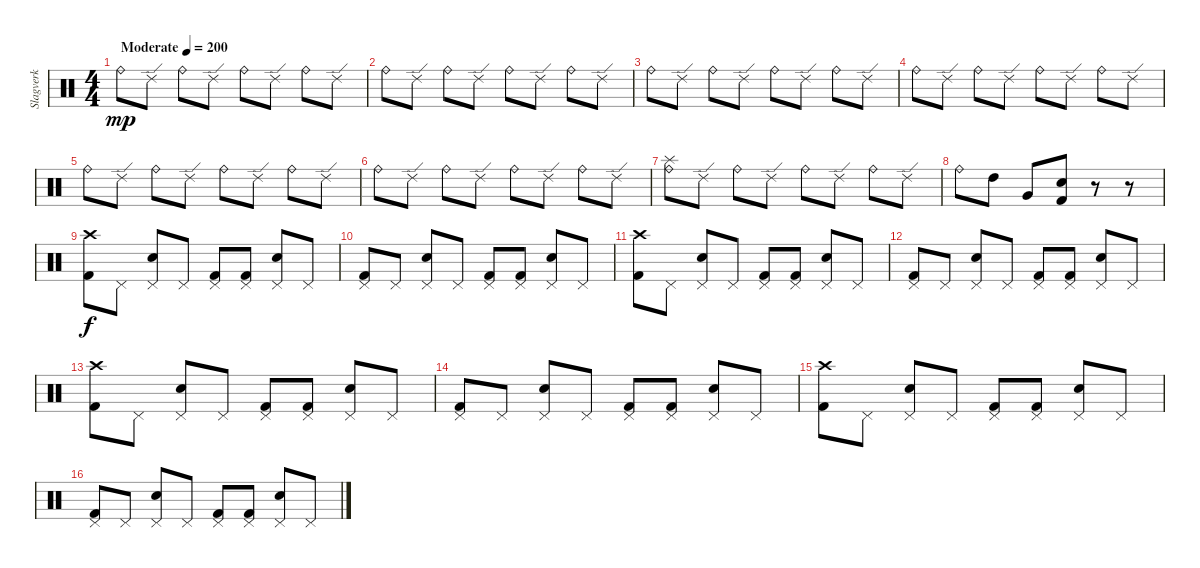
\track ("Slagverk" "Slagverk") {instrument percussion}
\staff {score}
\articulation defaults
\ts (4 4)
\tempo (200 "Moderate")
\clef neutral
\ks c "Ride (bell)".8{dy mp} "Ride (edge) 2".8 "Ride (bell)".8 "Ride (edge) 2".8 "Ride (bell)".8 "Ride (edge) 2".8 "Ride (bell)".8 "Ride (edge) 2".8
|
"Ride (bell)".8 "Ride (edge) 2".8 "Ride (bell)".8 "Ride (edge) 2".8 "Ride (bell)".8 "Ride (edge) 2".8 "Ride (bell)".8 "Ride (edge) 2".8 |
"Ride (bell)".8 "Ride (edge) 2".8 "Ride (bell)".8 "Ride (edge) 2".8 "Ride (bell)".8 "Ride (edge) 2".8 "Ride (bell)".8 "Ride (edge) 2".8 |
"Ride (bell)".8 "Ride (edge) 2".8 "Ride (bell)".8 "Ride (edge) 2".8 "Ride (bell)".8 "Ride (edge) 2".8 "Ride (bell)".8 "Ride (edge) 2".8 |
"Ride (bell)".8 "Ride (edge) 2".8 "Ride (bell)".8 "Ride (edge) 2".8 "Ride (bell)".8 "Ride (edge) 2".8 "Ride (bell)".8 "Ride (edge) 2".8 |
"Ride (bell)".8 "Ride (edge) 2".8 "Ride (bell)".8 "Ride (edge) 2".8 "Ride (bell)".8 "Ride (edge) 2".8 "Ride (bell)".8 "Ride (edge) 2".8 |
("Splash (hit)" "Ride (bell)").8 "Ride (edge) 2".8 "Ride (bell)".8 "Ride (edge) 2".8 "Ride (bell)".8 "Ride (edge) 2".8 "Ride (bell)".8 "Ride (edge) 2".8 |
"Ride (bell)".8 "High Tom (hit)".8 "Very Low Tom (hit)".8 ("Electric Snare (hit)" "Kick (hit) 2").8 r.8 r.8 |
("Crash high (hit)" "Kick (hit) 2").8{dy f} "Pedal Hi-Hat (hit)".8 ("Pedal Hi-Hat (hit)" "Electric Snare (hit)").8 "Pedal Hi-Hat (hit)".8 ("Pedal Hi-Hat (hit)" "Kick (hit) 2").8 ("Pedal Hi-Hat (hit)" "Kick (hit) 2").8 ("Pedal Hi-Hat (hit)" "Electric Snare (hit)").8 "Pedal Hi-Hat (hit)".8 |
("Pedal Hi-Hat (hit)" "Kick (hit) 2").8 "Pedal Hi-Hat (hit)".8 ("Pedal Hi-Hat (hit)" "Electric Snare (hit)").8 "Pedal Hi-Hat (hit)".8 ("Pedal Hi-Hat (hit)" "Kick (hit) 2").8 ("Pedal Hi-Hat (hit)" "Kick (hit) 2").8 ("Pedal Hi-Hat (hit)" "Electric Snare (hit)").8 "Pedal Hi-Hat (hit)".8 |
("Crash high (hit)" "Kick (hit) 2").8 "Pedal Hi-Hat (hit)".8 ("Pedal Hi-Hat (hit)" "Electric Snare (hit)").8 "Pedal Hi-Hat (hit)".8 ("Pedal Hi-Hat (hit)" "Kick (hit) 2").8 ("Pedal Hi-Hat (hit)" "Kick (hit) 2").8 ("Pedal Hi-Hat (hit)" "Electric Snare (hit)").8 "Pedal Hi-Hat (hit)".8 |
("Pedal Hi-Hat (hit)" "Kick (hit) 2").8 "Pedal Hi-Hat (hit)".8 ("Pedal Hi-Hat (hit)" "Electric Snare (hit)").8 "Pedal Hi-Hat (hit)".8 ("Pedal Hi-Hat (hit)" "Kick (hit) 2").8 ("Pedal Hi-Hat (hit)" "Kick (hit) 2").8 ("Pedal Hi-Hat (hit)" "Electric Snare (hit)").8 "Pedal Hi-Hat (hit)".8 |
("Crash high (hit)" "Kick (hit) 2").8 "Pedal Hi-Hat (hit)".8 ("Pedal Hi-Hat (hit)" "Electric Snare (hit)").8 "Pedal Hi-Hat (hit)".8 ("Pedal Hi-Hat (hit)" "Kick (hit) 2").8 ("Pedal Hi-Hat (hit)" "Kick (hit) 2").8 ("Pedal Hi-Hat (hit)" "Electric Snare (hit)").8 "Pedal Hi-Hat (hit)".8 |
("Pedal Hi-Hat (hit)" "Kick (hit) 2").8 "Pedal Hi-Hat (hit)".8 ("Pedal Hi-Hat (hit)" "Electric Snare (hit)").8 "Pedal Hi-Hat (hit)".8 ("Pedal Hi-Hat (hit)" "Kick (hit) 2").8 ("Pedal Hi-Hat (hit)" "Kick (hit) 2").8 ("Pedal Hi-Hat (hit)" "Electric Snare (hit)").8 "Pedal Hi-Hat (hit)".8 |
("Crash high (hit)" "Kick (hit) 2").8 "Pedal Hi-Hat (hit)".8 ("Pedal Hi-Hat (hit)" "Electric Snare (hit)").8 "Pedal Hi-Hat (hit)".8 ("Pedal Hi-Hat (hit)" "Kick (hit) 2").8 ("Pedal Hi-Hat (hit)" "Kick (hit) 2").8 ("Pedal Hi-Hat (hit)" "Electric Snare (hit)").8 "Pedal Hi-Hat (hit)".8 |
("Pedal Hi-Hat (hit)" "Kick (hit) 2").8 "Pedal Hi-Hat (hit)".8 ("Pedal Hi-Hat (hit)" "Electric Snare (hit)").8 "Pedal Hi-Hat (hit)".8 ("Pedal Hi-Hat (hit)" "Kick (hit) 2").8 ("Pedal Hi-Hat (hit)" "Kick (hit) 2").8 ("Pedal Hi-Hat (hit)" "Electric Snare (hit)").8 "Pedal Hi-Hat (hit)".8
